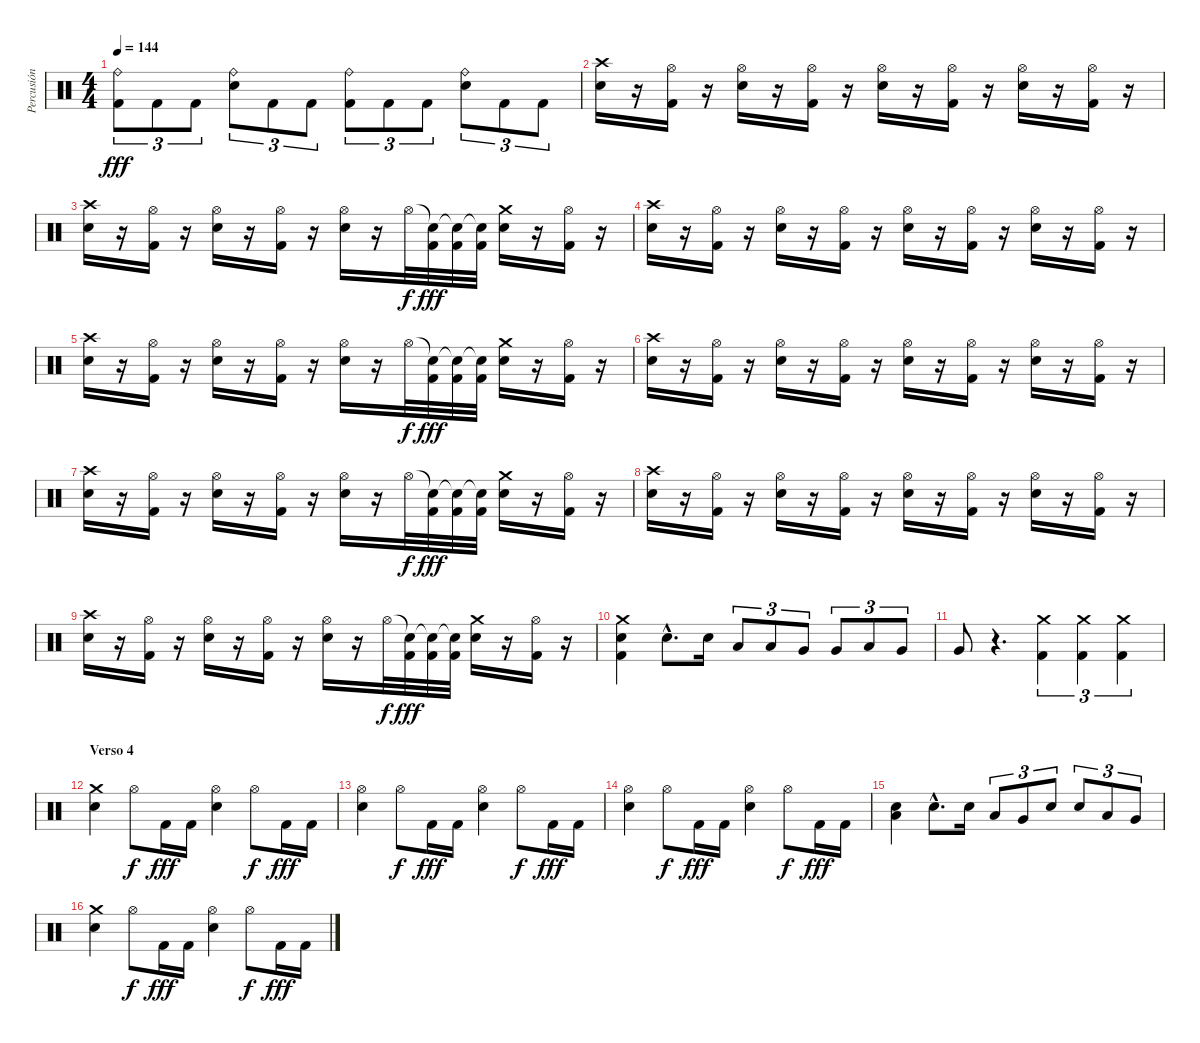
\track ("Percusión" "Percusión") {instrument percussion}
\staff {score}
\articulation defaults
\ts (4 4)
\tempo 144
\clef neutral
\ks c
("Ride (bell)" "Kick (hit) 2").8{tu (3 2) dy fff} "Kick (hit) 2".8{tu (3 2)} "Kick (hit) 2".8{tu (3 2)} ("Ride (bell)" "Snare (hit) 2").8{tu (3 2)} "Kick (hit) 2".8{tu (3 2)} "Kick (hit) 2".8{tu (3 2)} ("Ride (bell)" "Kick (hit) 2").8{tu (3 2)} "Kick (hit) 2".8{tu (3 2)} "Kick (hit) 2".8{tu (3 2)} ("Ride (bell)" "Snare (hit) 2").8{tu (3 2)} "Kick (hit) 2".8{tu (3 2)} "Kick (hit) 2".8{tu (3 2)} |
("Crash high (hit)" "Snare (hit) 2").16 r.16 ("Hi-Hat (open)" "Kick (hit) 2").16 r.16 ("Hi-Hat (open)" "Snare (hit) 2").16 r.16 ("Hi-Hat (open)" "Kick (hit) 2").16 r.16 ("Hi-Hat (open)" "Snare (hit) 2").16 r.16 ("Hi-Hat (open)" "Kick (hit) 2").16 r.16 ("Hi-Hat (open)" "Snare (hit) 2").16 r.16 ("Hi-Hat (open)" "Kick (hit) 2").16 r.16 |
("Crash high (hit)" "Snare (hit) 2").16 r.16 ("Hi-Hat (open)" "Kick (hit) 2").16 r.16 ("Hi-Hat (open)" "Snare (hit) 2").16 r.16 ("Hi-Hat (open)" "Kick (hit) 2").16 r.16 ("Hi-Hat (open)" "Snare (hit) 2").16 r.16 "Hi-Hat (open)".32{dy f} ("Snare (hit)"{t} "Kick (hit) 2").32{dy fff} ("Snare (hit)"{t} "Kick (hit) 2").32 ("Snare (hit)"{t} "Kick (hit) 2").32 ("Crash medium (hit)" "Snare (hit) 2").16 r.16 ("Hi-Hat (open)" "Kick (hit) 2").16 r.16 |
("Crash high (hit)" "Snare (hit) 2").16 r.16 ("Hi-Hat (open)" "Kick (hit) 2").16 r.16 ("Hi-Hat (open)" "Snare (hit) 2").16 r.16 ("Hi-Hat (open)" "Kick (hit) 2").16 r.16 ("Hi-Hat (open)" "Snare (hit) 2").16 r.16 ("Hi-Hat (open)" "Kick (hit) 2").16 r.16 ("Hi-Hat (open)" "Snare (hit) 2").16 r.16 ("Hi-Hat (open)" "Kick (hit) 2").16 r.16 |
("Crash high (hit)" "Snare (hit) 2").16 r.16 ("Hi-Hat (open)" "Kick (hit) 2").16 r.16 ("Hi-Hat (open)" "Snare (hit) 2").16 r.16 ("Hi-Hat (open)" "Kick (hit) 2").16 r.16 ("Hi-Hat (open)" "Snare (hit) 2").16 r.16 "Hi-Hat (open)".32{dy f} ("Snare (hit)"{t} "Kick (hit) 2").32{dy fff} ("Snare (hit)"{t} "Kick (hit) 2").32 ("Snare (hit)"{t} "Kick (hit) 2").32 ("Crash medium (hit)" "Snare (hit) 2").16 r.16 ("Hi-Hat (open)" "Kick (hit) 2").16 r.16 |
("Crash high (hit)" "Snare (hit) 2").16 r.16 ("Hi-Hat (open)" "Kick (hit) 2").16 r.16 ("Hi-Hat (open)" "Snare (hit) 2").16 r.16 ("Hi-Hat (open)" "Kick (hit) 2").16 r.16 ("Hi-Hat (open)" "Snare (hit) 2").16 r.16 ("Hi-Hat (open)" "Kick (hit) 2").16 r.16 ("Hi-Hat (open)" "Snare (hit) 2").16 r.16 ("Hi-Hat (open)" "Kick (hit) 2").16 r.16 |
("Crash high (hit)" "Snare (hit) 2").16 r.16 ("Hi-Hat (open)" "Kick (hit) 2").16 r.16 ("Hi-Hat (open)" "Snare (hit) 2").16 r.16 ("Hi-Hat (open)" "Kick (hit) 2").16 r.16 ("Hi-Hat (open)" "Snare (hit) 2").16 r.16 "Hi-Hat (open)".32{dy f} ("Snare (hit)"{t} "Kick (hit) 2").32{dy fff} ("Snare (hit)"{t} "Kick (hit) 2").32 ("Snare (hit)"{t} "Kick (hit) 2").32 ("Crash medium (hit)" "Snare (hit) 2").16 r.16 ("Hi-Hat (open)" "Kick (hit) 2").16 r.16 |
("Crash high (hit)" "Snare (hit) 2").16 r.16 ("Hi-Hat (open)" "Kick (hit) 2").16 r.16 ("Hi-Hat (open)" "Snare (hit) 2").16 r.16 ("Hi-Hat (open)" "Kick (hit) 2").16 r.16 ("Hi-Hat (open)" "Snare (hit) 2").16 r.16 ("Hi-Hat (open)" "Kick (hit) 2").16 r.16 ("Hi-Hat (open)" "Snare (hit) 2").16 r.16 ("Hi-Hat (open)" "Kick (hit) 2").16 r.16 |
("Crash high (hit)" "Snare (hit) 2").16 r.16 ("Hi-Hat (open)" "Kick (hit) 2").16 r.16 ("Hi-Hat (open)" "Snare (hit) 2").16 r.16 ("Hi-Hat (open)" "Kick (hit) 2").16 r.16 ("Hi-Hat (open)" "Snare (hit) 2").16 r.16 "Hi-Hat (open)".32{dy f} ("Snare (hit)"{t} "Kick (hit) 2").32{dy fff} ("Snare (hit)"{t} "Kick (hit) 2").32 ("Snare (hit)"{t} "Kick (hit) 2").32 ("Crash medium (hit)" "Snare (hit) 2").16 r.16 ("Hi-Hat (open)" "Kick (hit) 2").16 r.16 |
("Crash medium (hit)" "Snare (hit) 2" "Kick (hit) 2").4 "Snare (hit) 2"{hac}.8{d} "Snare (hit) 2".16 "Low Tom (hit)".8{tu (3 2)} "Low Tom (hit)".8{tu (3 2)} "Very Low Tom (hit)".8{tu (3 2)} "Very Low Tom (hit)".8{tu (3 2)} "Low Tom (hit)".8{tu (3 2)} "Very Low Tom (hit)".8{tu (3 2)} |
"Very Low Tom (hit)".8 r.4{d} ("Crash medium (hit)" "Kick (hit) 2").4{tu (3 2)} ("Crash medium (hit)" "Kick (hit) 2").4{tu (3 2)} ("Crash medium (hit)" "Kick (hit) 2").4{tu (3 2)} |
\section ("" "Verso 4")
("Crash medium (hit)" "Snare (hit) 2").4 "Hi-Hat (open)".8{dy f} "Kick (hit) 2".16{dy fff} "Kick (hit) 2".16 ("Hi-Hat (open)" "Snare (hit) 2").4 "Hi-Hat (open)".8{dy f} "Kick (hit) 2".16{dy fff} "Kick (hit) 2".16 |
("Hi-Hat (open)" "Snare (hit) 2").4 "Hi-Hat (open)".8{dy f} "Kick (hit) 2".16{dy fff} "Kick (hit) 2".16 ("Hi-Hat (open)" "Snare (hit) 2").4 "Hi-Hat (open)".8{dy f} "Kick (hit) 2".16{dy fff} "Kick (hit) 2".16 |
("Hi-Hat (open)" "Snare (hit) 2").4 "Hi-Hat (open)".8{dy f} "Kick (hit) 2".16{dy fff} "Kick (hit) 2".16 ("Hi-Hat (open)" "Snare (hit) 2").4 "Hi-Hat (open)".8{dy f} "Kick (hit) 2".16{dy fff} "Kick (hit) 2".16 |
("Low Tom (hit)" "Snare (hit) 2").4 "Snare (hit) 2"{hac}.8{d} "Snare (hit) 2".16 "Low Tom (hit)".8{tu (3 2)} "Very Low Tom (hit)".8{tu (3 2)} "Snare (hit) 2".8{tu (3 2)} "Snare (hit) 2".8{tu (3 2)} "Low Tom (hit)".8{tu (3 2)} "Very Low Tom (hit)".8{tu (3 2)} |
("Crash medium (hit)" "Snare (hit) 2").4 "Hi-Hat (open)".8{dy f} "Kick (hit) 2".16{dy fff} "Kick (hit) 2".16 ("Hi-Hat (open)" "Snare (hit) 2").4 "Hi-Hat (open)".8{dy f} "Kick (hit) 2".16{dy fff} "Kick (hit) 2".16
